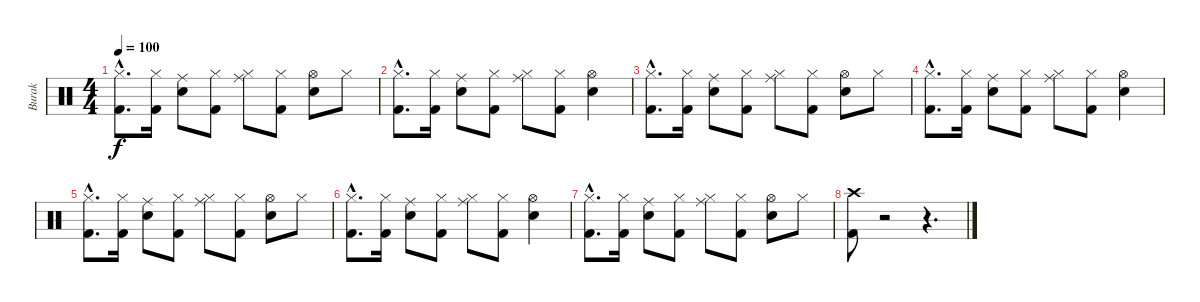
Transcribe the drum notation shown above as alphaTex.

\track ("Burak" "Burak") {instrument percussion}
\staff {score}
\articulation defaults
\ts (4 4)
\tempo 100
\clef neutral
\ks c
("Kick (hit) 2"{hac} "Hi-Hat (closed)"{hac}).8{d dy f} ("Kick (hit) 2" "Hi-Hat (closed)").16 ("Electric Snare (hit)" "Ride (middle)").8 ("Kick (hit) 2" "Hi-Hat (closed)").8 ("Ride (middle)" "Hi-Hat (closed)").8 ("Kick (hit) 2" "Hi-Hat (closed)").8 ("Electric Snare (hit)" "Hi-Hat (open)").8 "Hi-Hat (closed)".8 |
("Kick (hit) 2"{hac} "Hi-Hat (closed)"{hac}).8{d} ("Kick (hit) 2" "Hi-Hat (closed)").16 ("Electric Snare (hit)" "Ride (middle)").8 ("Kick (hit) 2" "Hi-Hat (closed)").8 ("Ride (middle)" "Hi-Hat (closed)").8 ("Kick (hit) 2" "Hi-Hat (closed)").8 ("Electric Snare (hit)" "Hi-Hat (open)").4 |
("Kick (hit) 2"{hac} "Hi-Hat (closed)"{hac}).8{d} ("Kick (hit) 2" "Hi-Hat (closed)").16 ("Electric Snare (hit)" "Ride (middle)").8 ("Kick (hit) 2" "Hi-Hat (closed)").8 ("Ride (middle)" "Hi-Hat (closed)").8 ("Kick (hit) 2" "Hi-Hat (closed)").8 ("Electric Snare (hit)" "Hi-Hat (open)").8 "Hi-Hat (closed)".8 |
("Kick (hit) 2"{hac} "Hi-Hat (closed)"{hac}).8{d} ("Kick (hit) 2" "Hi-Hat (closed)").16 ("Electric Snare (hit)" "Ride (middle)").8 ("Kick (hit) 2" "Hi-Hat (closed)").8 ("Ride (middle)" "Hi-Hat (closed)").8 ("Kick (hit) 2" "Hi-Hat (closed)").8 ("Electric Snare (hit)" "Hi-Hat (open)").4 |
("Kick (hit) 2"{hac} "Hi-Hat (closed)"{hac}).8{d} ("Kick (hit) 2" "Hi-Hat (closed)").16 ("Electric Snare (hit)" "Ride (middle)").8 ("Kick (hit) 2" "Hi-Hat (closed)").8 ("Ride (middle)" "Hi-Hat (closed)").8 ("Kick (hit) 2" "Hi-Hat (closed)").8 ("Electric Snare (hit)" "Hi-Hat (open)").8 "Hi-Hat (closed)".8 |
("Kick (hit) 2"{hac} "Hi-Hat (closed)"{hac}).8{d} ("Kick (hit) 2" "Hi-Hat (closed)").16 ("Electric Snare (hit)" "Ride (middle)").8 ("Kick (hit) 2" "Hi-Hat (closed)").8 ("Ride (middle)" "Hi-Hat (closed)").8 ("Kick (hit) 2" "Hi-Hat (closed)").8 ("Electric Snare (hit)" "Hi-Hat (open)").4 |
("Kick (hit) 2"{hac} "Hi-Hat (closed)"{hac}).8{d} ("Kick (hit) 2" "Hi-Hat (closed)").16 ("Electric Snare (hit)" "Ride (middle)").8 ("Kick (hit) 2" "Hi-Hat (closed)").8 ("Ride (middle)" "Hi-Hat (closed)").8 ("Kick (hit) 2" "Hi-Hat (closed)").8 ("Electric Snare (hit)" "Hi-Hat (open)").8 "Hi-Hat (closed)".8 |
("Crash high (hit)" "Kick (hit) 2").8 r.2 r.4{d}
